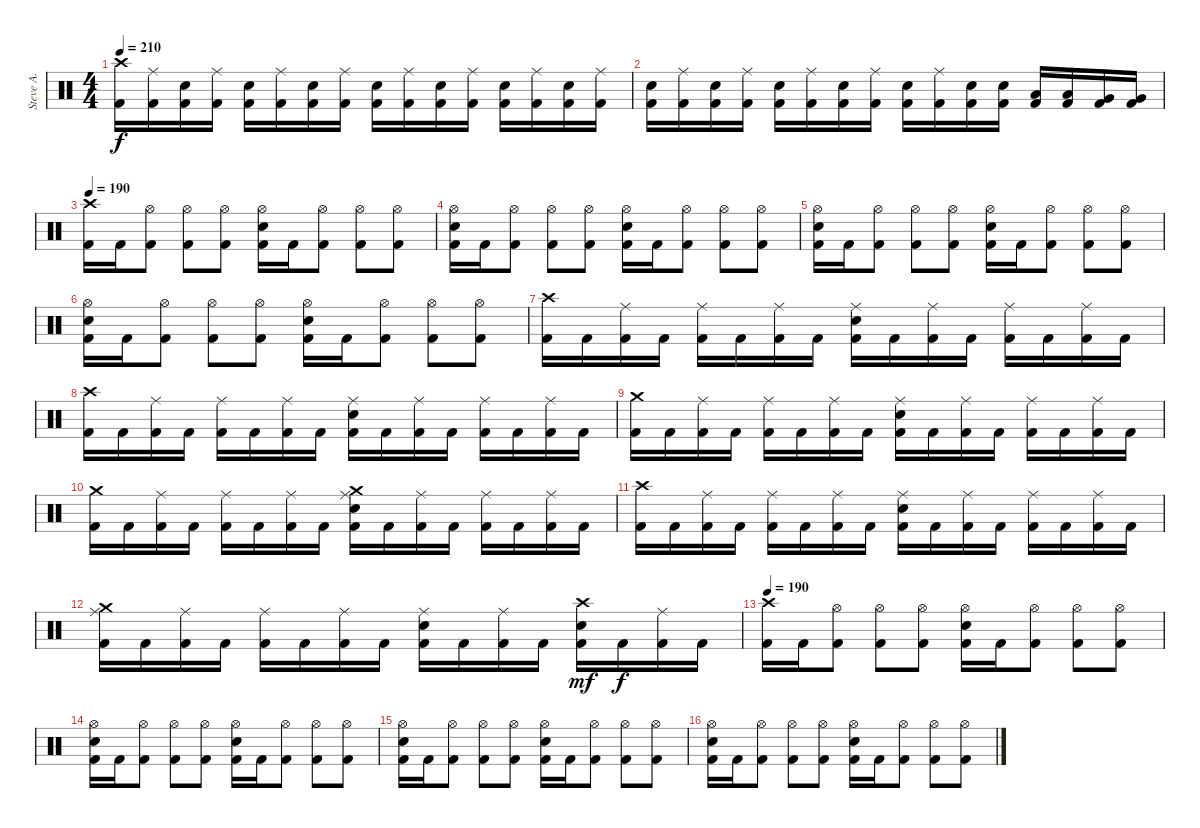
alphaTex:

\track ("Steve A." "Steve A.") {instrument percussion}
\staff {score}
\articulation defaults
\ts (4 4)
\tempo 210
\clef neutral
\ks c
("Kick (hit) 2" "Crash high (hit)").16{dy f} ("Kick (hit) 2" "Ride (middle)").16 ("Kick (hit) 2" "Electric Snare (hit)").16 ("Kick (hit) 2" "Ride (middle)").16 ("Kick (hit) 2" "Electric Snare (hit)").16 ("Kick (hit) 2" "Ride (middle)").16 ("Kick (hit) 2" "Electric Snare (hit)").16 ("Kick (hit) 2" "Ride (middle)").16 ("Kick (hit) 2" "Electric Snare (hit)").16 ("Kick (hit) 2" "Ride (middle)").16 ("Kick (hit) 2" "Electric Snare (hit)").16 ("Kick (hit) 2" "Ride (middle)").16 ("Kick (hit) 2" "Electric Snare (hit)").16 ("Kick (hit) 2" "Ride (middle)").16 ("Kick (hit) 2" "Electric Snare (hit)").16 ("Kick (hit) 2" "Ride (middle)").16 |
("Kick (hit) 2" "Electric Snare (hit)").16 ("Kick (hit) 2" "Ride (middle)").16 ("Kick (hit) 2" "Electric Snare (hit)").16 ("Kick (hit) 2" "Ride (middle)").16 ("Kick (hit) 2" "Electric Snare (hit)").16 ("Kick (hit) 2" "Ride (middle)").16 ("Kick (hit) 2" "Electric Snare (hit)").16 ("Kick (hit) 2" "Ride (middle)").16 ("Kick (hit) 2" "Electric Snare (hit)").16 ("Kick (hit) 2" "Ride (middle)").16 ("Kick (hit) 2" "Electric Snare (hit)").16 ("Kick (hit) 2" "Electric Snare (hit)").16 ("Kick (hit) 2" "Low Tom (hit)").16 ("Kick (hit) 2" "Low Tom (hit)").16 ("Kick (hit) 2" "Very Low Tom (hit)").16 ("Kick (hit) 2" "Very Low Tom (hit)").16 |
\tempo 190
("Kick (hit) 2" "Crash high (hit)").16 "Kick (hit) 2".16 ("Kick (hit) 2" "Hi-Hat (open)").8 ("Kick (hit) 2" "Hi-Hat (open)").8 ("Kick (hit) 2" "Hi-Hat (open)").8 ("Kick (hit) 2" "Hi-Hat (open)" "Electric Snare (hit)").16 "Kick (hit) 2".16 ("Kick (hit) 2" "Hi-Hat (open)").8 ("Kick (hit) 2" "Hi-Hat (open)").8 ("Kick (hit) 2" "Hi-Hat (open)").8 |
("Kick (hit) 2" "Hi-Hat (open)" "Electric Snare (hit)").16 "Kick (hit) 2".16 ("Kick (hit) 2" "Hi-Hat (open)").8 ("Kick (hit) 2" "Hi-Hat (open)").8 ("Kick (hit) 2" "Hi-Hat (open)").8 ("Kick (hit) 2" "Hi-Hat (open)" "Electric Snare (hit)").16 "Kick (hit) 2".16 ("Kick (hit) 2" "Hi-Hat (open)").8 ("Kick (hit) 2" "Hi-Hat (open)").8 ("Kick (hit) 2" "Hi-Hat (open)").8 |
("Kick (hit) 2" "Hi-Hat (open)" "Electric Snare (hit)").16 "Kick (hit) 2".16 ("Kick (hit) 2" "Hi-Hat (open)").8 ("Kick (hit) 2" "Hi-Hat (open)").8 ("Kick (hit) 2" "Hi-Hat (open)").8 ("Kick (hit) 2" "Hi-Hat (open)" "Electric Snare (hit)").16 "Kick (hit) 2".16 ("Kick (hit) 2" "Hi-Hat (open)").8 ("Kick (hit) 2" "Hi-Hat (open)").8 ("Kick (hit) 2" "Hi-Hat (open)").8 |
("Kick (hit) 2" "Hi-Hat (open)" "Electric Snare (hit)").16 "Kick (hit) 2".16 ("Kick (hit) 2" "Hi-Hat (open)").8 ("Kick (hit) 2" "Hi-Hat (open)").8 ("Kick (hit) 2" "Hi-Hat (open)").8 ("Kick (hit) 2" "Hi-Hat (open)" "Electric Snare (hit)").16 "Kick (hit) 2".16 ("Kick (hit) 2" "Hi-Hat (open)").8 ("Kick (hit) 2" "Hi-Hat (open)").8 ("Kick (hit) 2" "Hi-Hat (open)").8 |
("Kick (hit) 2" "Crash high (hit)").16 "Kick (hit) 2".16 ("Kick (hit) 2" "Ride (middle)").16 "Kick (hit) 2".16 ("Kick (hit) 2" "Ride (middle)").16 "Kick (hit) 2".16 ("Kick (hit) 2" "Ride (middle)").16 "Kick (hit) 2".16 ("Kick (hit) 2" "Ride (middle)" "Electric Snare (hit)").16 "Kick (hit) 2".16 ("Kick (hit) 2" "Ride (middle)").16 "Kick (hit) 2".16 ("Kick (hit) 2" "Ride (middle)").16 "Kick (hit) 2".16 ("Kick (hit) 2" "Ride (middle)").16 "Kick (hit) 2".16 |
("Kick (hit) 2" "Crash high (hit)").16 "Kick (hit) 2".16 ("Kick (hit) 2" "Ride (middle)").16 "Kick (hit) 2".16 ("Kick (hit) 2" "Ride (middle)").16 "Kick (hit) 2".16 ("Kick (hit) 2" "Ride (middle)").16 "Kick (hit) 2".16 ("Kick (hit) 2" "Ride (middle)" "Electric Snare (hit)").16 "Kick (hit) 2".16 ("Kick (hit) 2" "Ride (middle)").16 "Kick (hit) 2".16 ("Kick (hit) 2" "Ride (middle)").16 "Kick (hit) 2".16 ("Kick (hit) 2" "Ride (middle)").16 "Kick (hit) 2".16 |
("Kick (hit) 2" "Crash medium (hit)").16 "Kick (hit) 2".16 ("Kick (hit) 2" "Ride (middle)").16 "Kick (hit) 2".16 ("Kick (hit) 2" "Ride (middle)").16 "Kick (hit) 2".16 ("Kick (hit) 2" "Ride (middle)").16 "Kick (hit) 2".16 ("Kick (hit) 2" "Ride (middle)" "Electric Snare (hit)").16 "Kick (hit) 2".16 ("Kick (hit) 2" "Ride (middle)").16 "Kick (hit) 2".16 ("Kick (hit) 2" "Ride (middle)").16 "Kick (hit) 2".16 ("Kick (hit) 2" "Ride (middle)").16 "Kick (hit) 2".16 |
("Kick (hit) 2" "Crash medium (hit)").16 "Kick (hit) 2".16 ("Kick (hit) 2" "Ride (middle)").16 "Kick (hit) 2".16 ("Kick (hit) 2" "Ride (middle)").16 "Kick (hit) 2".16 ("Kick (hit) 2" "Ride (middle)").16 "Kick (hit) 2".16 ("Kick (hit) 2" "Ride (middle)" "Electric Snare (hit)" "Crash medium (hit)").16 "Kick (hit) 2".16 ("Kick (hit) 2" "Ride (middle)").16 "Kick (hit) 2".16 ("Kick (hit) 2" "Ride (middle)").16 "Kick (hit) 2".16 ("Kick (hit) 2" "Ride (middle)").16 "Kick (hit) 2".16 |
("Kick (hit) 2" "Crash high (hit)").16 "Kick (hit) 2".16 ("Kick (hit) 2" "Ride (middle)").16 "Kick (hit) 2".16 ("Kick (hit) 2" "Ride (middle)").16 "Kick (hit) 2".16 ("Kick (hit) 2" "Ride (middle)").16 "Kick (hit) 2".16 ("Kick (hit) 2" "Ride (middle)" "Electric Snare (hit)").16 "Kick (hit) 2".16 ("Kick (hit) 2" "Ride (middle)").16 "Kick (hit) 2".16 ("Kick (hit) 2" "Ride (middle)").16 "Kick (hit) 2".16 ("Kick (hit) 2" "Ride (middle)").16 "Kick (hit) 2".16 |
("Kick (hit) 2" "Ride (middle)" "Crash medium (hit)").16 "Kick (hit) 2".16 ("Kick (hit) 2" "Ride (middle)").16 "Kick (hit) 2".16 ("Kick (hit) 2" "Ride (middle)").16 "Kick (hit) 2".16 ("Kick (hit) 2" "Ride (middle)").16 "Kick (hit) 2".16 ("Kick (hit) 2" "Ride (middle)" "Electric Snare (hit)").16 "Kick (hit) 2".16 ("Kick (hit) 2" "Ride (middle)").16 "Kick (hit) 2".16 ("Kick (hit) 2" "Crash high (hit)" "Electric Snare (hit)").16{dy mf} "Kick (hit) 2".16{dy f} ("Kick (hit) 2" "Ride (middle)").16 "Kick (hit) 2".16 |
\tempo 190
("Kick (hit) 2" "Crash high (hit)").16 "Kick (hit) 2".16 ("Kick (hit) 2" "Hi-Hat (open)").8 ("Kick (hit) 2" "Hi-Hat (open)").8 ("Kick (hit) 2" "Hi-Hat (open)").8 ("Kick (hit) 2" "Hi-Hat (open)" "Electric Snare (hit)").16 "Kick (hit) 2".16 ("Kick (hit) 2" "Hi-Hat (open)").8 ("Kick (hit) 2" "Hi-Hat (open)").8 ("Kick (hit) 2" "Hi-Hat (open)").8 |
("Kick (hit) 2" "Hi-Hat (open)" "Electric Snare (hit)").16 "Kick (hit) 2".16 ("Kick (hit) 2" "Hi-Hat (open)").8 ("Kick (hit) 2" "Hi-Hat (open)").8 ("Kick (hit) 2" "Hi-Hat (open)").8 ("Kick (hit) 2" "Hi-Hat (open)" "Electric Snare (hit)").16 "Kick (hit) 2".16 ("Kick (hit) 2" "Hi-Hat (open)").8 ("Kick (hit) 2" "Hi-Hat (open)").8 ("Kick (hit) 2" "Hi-Hat (open)").8 |
("Kick (hit) 2" "Hi-Hat (open)" "Electric Snare (hit)").16 "Kick (hit) 2".16 ("Kick (hit) 2" "Hi-Hat (open)").8 ("Kick (hit) 2" "Hi-Hat (open)").8 ("Kick (hit) 2" "Hi-Hat (open)").8 ("Kick (hit) 2" "Hi-Hat (open)" "Electric Snare (hit)").16 "Kick (hit) 2".16 ("Kick (hit) 2" "Hi-Hat (open)").8 ("Kick (hit) 2" "Hi-Hat (open)").8 ("Kick (hit) 2" "Hi-Hat (open)").8 |
("Kick (hit) 2" "Hi-Hat (open)" "Electric Snare (hit)").16 "Kick (hit) 2".16 ("Kick (hit) 2" "Hi-Hat (open)").8 ("Kick (hit) 2" "Hi-Hat (open)").8 ("Kick (hit) 2" "Hi-Hat (open)").8 ("Kick (hit) 2" "Hi-Hat (open)" "Electric Snare (hit)").16 "Kick (hit) 2".16 ("Kick (hit) 2" "Hi-Hat (open)").8 ("Kick (hit) 2" "Hi-Hat (open)").8 ("Kick (hit) 2" "Hi-Hat (open)").8
